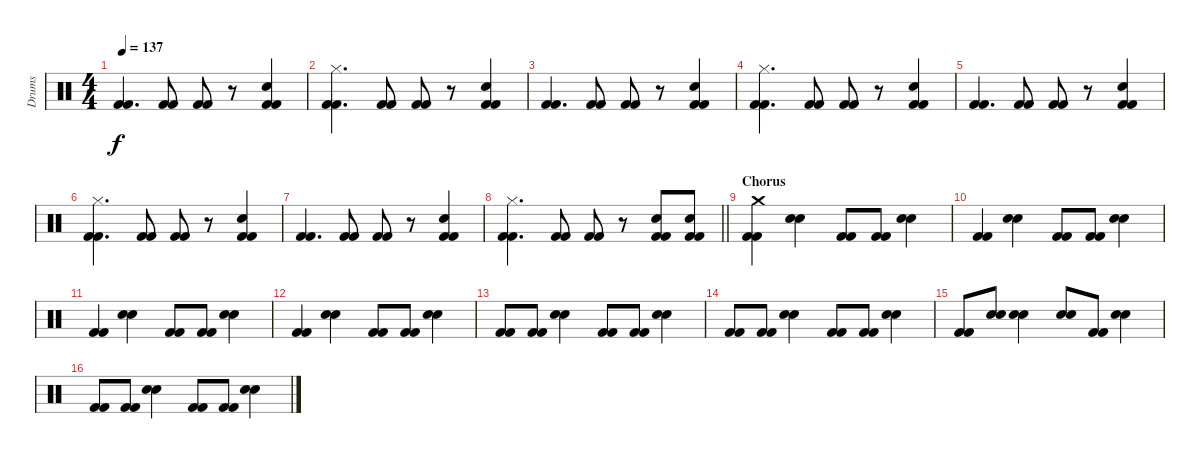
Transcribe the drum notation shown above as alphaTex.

\track ("Drums" "Drums") {instrument percussion}
\staff {score}
\articulation defaults
\ts (4 4)
\tempo 137
\clef neutral
\ks c
("Kick (hit) 2" "Kick (hit) 2").4{d dy f} ("Kick (hit) 2" "Kick (hit) 2").8 ("Kick (hit) 2" "Kick (hit) 2").8 r.8 ("Kick (hit) 2" "Kick (hit) 2" "Electric Snare (hit)").4 |
("Kick (hit) 2" "Kick (hit) 2" "Hi-Hat (closed)").4{d} ("Kick (hit) 2" "Kick (hit) 2").8 ("Kick (hit) 2" "Kick (hit) 2").8 r.8 ("Kick (hit) 2" "Kick (hit) 2" "Electric Snare (hit)").4 |
("Kick (hit) 2" "Kick (hit) 2").4{d} ("Kick (hit) 2" "Kick (hit) 2").8 ("Kick (hit) 2" "Kick (hit) 2").8 r.8 ("Kick (hit) 2" "Kick (hit) 2" "Electric Snare (hit)").4 |
("Kick (hit) 2" "Kick (hit) 2" "Hi-Hat (closed)").4{d} ("Kick (hit) 2" "Kick (hit) 2").8 ("Kick (hit) 2" "Kick (hit) 2").8 r.8 ("Kick (hit) 2" "Kick (hit) 2" "Electric Snare (hit)").4 |
("Kick (hit) 2" "Kick (hit) 2").4{d} ("Kick (hit) 2" "Kick (hit) 2").8 ("Kick (hit) 2" "Kick (hit) 2").8 r.8 ("Kick (hit) 2" "Kick (hit) 2" "Electric Snare (hit)").4 |
("Kick (hit) 2" "Kick (hit) 2" "Hi-Hat (closed)").4{d} ("Kick (hit) 2" "Kick (hit) 2").8 ("Kick (hit) 2" "Kick (hit) 2").8 r.8 ("Kick (hit) 2" "Kick (hit) 2" "Electric Snare (hit)").4 |
("Kick (hit) 2" "Kick (hit) 2").4{d} ("Kick (hit) 2" "Kick (hit) 2").8 ("Kick (hit) 2" "Kick (hit) 2").8 r.8 ("Kick (hit) 2" "Kick (hit) 2" "Electric Snare (hit)").4 |
\barLineRight lightlight
("Kick (hit) 2" "Kick (hit) 2" "Hi-Hat (closed)").4{d} ("Kick (hit) 2" "Kick (hit) 2").8 ("Kick (hit) 2" "Kick (hit) 2").8 r.8 ("Kick (hit) 2" "Kick (hit) 2" "Electric Snare (hit)").8 ("Kick (hit) 2" "Kick (hit) 2" "Electric Snare (hit)").8 |
\section ("" "Chorus")
("Kick (hit) 2" "Kick (hit) 2" "Crash medium (hit)").4 ("Electric Snare (hit)" "Electric Snare (hit)").4 ("Kick (hit) 2" "Kick (hit) 2").8 ("Kick (hit) 2" "Kick (hit) 2").8 ("Electric Snare (hit)" "Electric Snare (hit)").4 |
("Kick (hit) 2" "Kick (hit) 2").4 ("Electric Snare (hit)" "Electric Snare (hit)").4 ("Kick (hit) 2" "Kick (hit) 2").8 ("Kick (hit) 2" "Kick (hit) 2").8 ("Electric Snare (hit)" "Electric Snare (hit)").4 |
("Kick (hit) 2" "Kick (hit) 2").4 ("Electric Snare (hit)" "Electric Snare (hit)").4 ("Kick (hit) 2" "Kick (hit) 2").8 ("Kick (hit) 2" "Kick (hit) 2").8 ("Electric Snare (hit)" "Electric Snare (hit)").4 |
("Kick (hit) 2" "Kick (hit) 2").4 ("Electric Snare (hit)" "Electric Snare (hit)").4 ("Kick (hit) 2" "Kick (hit) 2").8 ("Kick (hit) 2" "Kick (hit) 2").8 ("Electric Snare (hit)" "Electric Snare (hit)").4 |
("Kick (hit) 2" "Kick (hit) 2").8 ("Kick (hit) 2" "Kick (hit) 2").8 ("Electric Snare (hit)" "Electric Snare (hit)").4 ("Kick (hit) 2" "Kick (hit) 2").8 ("Kick (hit) 2" "Kick (hit) 2").8 ("Electric Snare (hit)" "Electric Snare (hit)").4 |
("Kick (hit) 2" "Kick (hit) 2").8 ("Kick (hit) 2" "Kick (hit) 2").8 ("Electric Snare (hit)" "Electric Snare (hit)").4 ("Kick (hit) 2" "Kick (hit) 2").8 ("Kick (hit) 2" "Kick (hit) 2").8 ("Electric Snare (hit)" "Electric Snare (hit)").4 |
("Kick (hit) 2" "Kick (hit) 2").8 ("Electric Snare (hit)" "Electric Snare (hit)").8 ("Electric Snare (hit)" "Electric Snare (hit)").4 ("Electric Snare (hit)" "Electric Snare (hit)").8 ("Kick (hit) 2" "Kick (hit) 2").8 ("Electric Snare (hit)" "Electric Snare (hit)").4 |
("Kick (hit) 2" "Kick (hit) 2").8 ("Kick (hit) 2" "Kick (hit) 2").8 ("Electric Snare (hit)" "Electric Snare (hit)").4 ("Kick (hit) 2" "Kick (hit) 2").8 ("Kick (hit) 2" "Kick (hit) 2").8 ("Electric Snare (hit)" "Electric Snare (hit)").4
